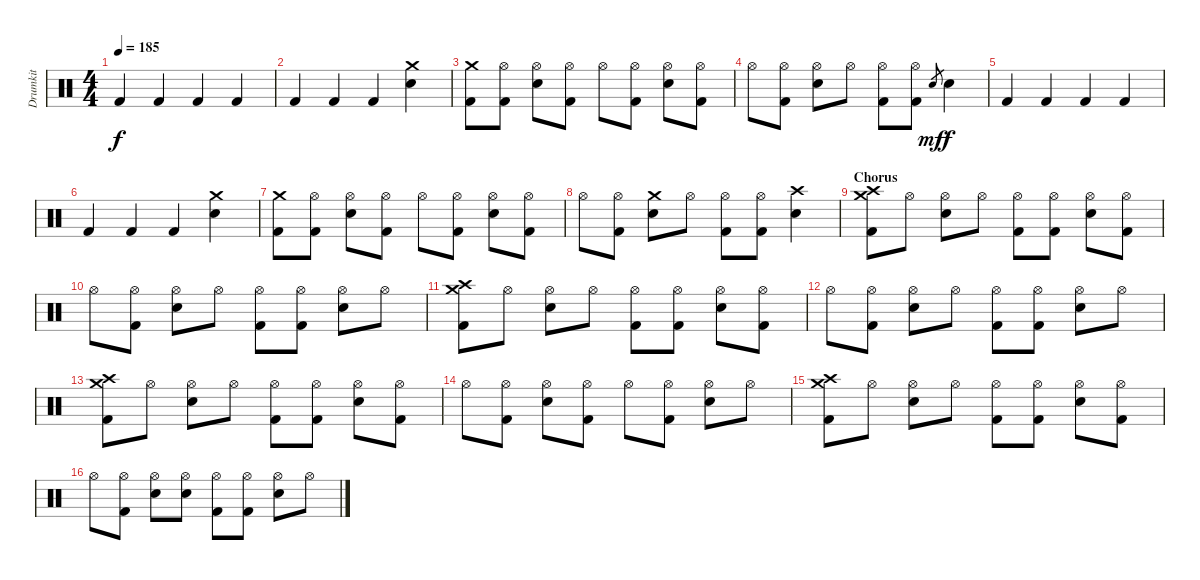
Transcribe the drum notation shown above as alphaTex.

\track ("Drumkit" "Drumkit") {instrument percussion}
\staff {score}
\articulation defaults
\ts (4 4)
\tempo 185
\clef neutral
\ks c "Kick (hit) 2".4{dy f} "Kick (hit) 2".4 "Kick (hit) 2".4 "Kick (hit) 2".4
|
"Kick (hit) 2".4 "Kick (hit) 2".4 "Kick (hit) 2".4 ("Snare (hit) 2" "Crash medium (hit)").4 |
("Crash medium (hit)" "Kick (hit) 2").8 ("Hi-Hat (open)" "Kick (hit) 2").8 ("Hi-Hat (open)" "Snare (hit) 2").8 ("Hi-Hat (open)" "Kick (hit) 2").8 "Hi-Hat (open)".8 ("Hi-Hat (open)" "Kick (hit) 2").8 ("Hi-Hat (open)" "Snare (hit) 2").8 ("Hi-Hat (open)" "Kick (hit) 2").8 |
"Hi-Hat (open)".8 ("Hi-Hat (open)" "Kick (hit) 2").8 ("Hi-Hat (open)" "Snare (hit) 2").8 "Hi-Hat (open)".8 ("Hi-Hat (open)" "Kick (hit) 2").8 ("Hi-Hat (open)" "Kick (hit) 2").8 "Snare (hit)".8{gr dy mf} "Snare (hit) 2".4{dy f} |
"Kick (hit) 2".4 "Kick (hit) 2".4 "Kick (hit) 2".4 "Kick (hit) 2".4 |
"Kick (hit) 2".4 "Kick (hit) 2".4 "Kick (hit) 2".4 ("Snare (hit) 2" "Crash medium (hit)").4 |
("Crash medium (hit)" "Kick (hit) 2").8 ("Hi-Hat (open)" "Kick (hit) 2").8 ("Hi-Hat (open)" "Snare (hit) 2").8 ("Hi-Hat (open)" "Kick (hit) 2").8 "Hi-Hat (open)".8 ("Hi-Hat (open)" "Kick (hit) 2").8 ("Hi-Hat (open)" "Snare (hit) 2").8 ("Hi-Hat (open)" "Kick (hit) 2").8 |
"Hi-Hat (open)".8 ("Hi-Hat (open)" "Kick (hit) 2").8 ("Crash medium (hit)" "Snare (hit) 2").8 "Hi-Hat (open)".8 ("Hi-Hat (open)" "Kick (hit) 2").8 ("Hi-Hat (open)" "Kick (hit) 2").8 ("Crash high (hit)" "Snare (hit) 2").4 |
\section ("" "Chorus")
("Crash high (hit)" "Kick (hit) 2" "Crash medium (hit)").8 "Hi-Hat (open)".8 ("Hi-Hat (open)" "Snare (hit) 2").8 "Hi-Hat (open)".8 ("Hi-Hat (open)" "Kick (hit) 2").8 ("Hi-Hat (open)" "Kick (hit) 2").8 ("Hi-Hat (open)" "Snare (hit) 2").8 ("Hi-Hat (open)" "Kick (hit) 2").8 |
"Hi-Hat (open)".8 ("Hi-Hat (open)" "Kick (hit) 2").8 ("Hi-Hat (open)" "Snare (hit) 2").8 "Hi-Hat (open)".8 ("Hi-Hat (open)" "Kick (hit) 2").8 ("Hi-Hat (open)" "Kick (hit) 2").8 ("Hi-Hat (open)" "Snare (hit) 2").8 "Hi-Hat (open)".8 |
("Crash high (hit)" "Kick (hit) 2" "Crash medium (hit)").8 "Hi-Hat (open)".8 ("Hi-Hat (open)" "Snare (hit) 2").8 "Hi-Hat (open)".8 ("Hi-Hat (open)" "Kick (hit) 2").8 ("Hi-Hat (open)" "Kick (hit) 2").8 ("Hi-Hat (open)" "Snare (hit) 2").8 ("Hi-Hat (open)" "Kick (hit) 2").8 |
"Hi-Hat (open)".8 ("Hi-Hat (open)" "Kick (hit) 2").8 ("Hi-Hat (open)" "Snare (hit) 2").8 "Hi-Hat (open)".8 ("Hi-Hat (open)" "Kick (hit) 2").8 ("Hi-Hat (open)" "Kick (hit) 2").8 ("Hi-Hat (open)" "Snare (hit) 2").8 "Hi-Hat (open)".8 |
("Crash high (hit)" "Kick (hit) 2" "Crash medium (hit)").8 "Hi-Hat (open)".8 ("Hi-Hat (open)" "Snare (hit) 2").8 "Hi-Hat (open)".8 ("Hi-Hat (open)" "Kick (hit) 2").8 ("Hi-Hat (open)" "Kick (hit) 2").8 ("Hi-Hat (open)" "Snare (hit) 2").8 ("Hi-Hat (open)" "Kick (hit) 2").8 |
"Hi-Hat (open)".8 ("Hi-Hat (open)" "Kick (hit) 2").8 ("Hi-Hat (open)" "Snare (hit) 2").8 ("Hi-Hat (open)" "Kick (hit) 2").8 "Hi-Hat (open)".8 ("Hi-Hat (open)" "Kick (hit) 2").8 ("Hi-Hat (open)" "Snare (hit) 2").8 "Hi-Hat (open)".8 |
("Crash high (hit)" "Kick (hit) 2" "Crash medium (hit)").8 "Hi-Hat (open)".8 ("Hi-Hat (open)" "Snare (hit) 2").8 "Hi-Hat (open)".8 ("Hi-Hat (open)" "Kick (hit) 2").8 ("Hi-Hat (open)" "Kick (hit) 2").8 ("Hi-Hat (open)" "Snare (hit) 2").8 ("Hi-Hat (open)" "Kick (hit) 2").8 |
"Hi-Hat (open)".8 ("Hi-Hat (open)" "Kick (hit) 2").8 ("Hi-Hat (open)" "Snare (hit) 2").8 ("Hi-Hat (open)" "Snare (hit) 2").8 ("Hi-Hat (open)" "Kick (hit) 2").8 ("Hi-Hat (open)" "Kick (hit) 2").8 ("Hi-Hat (open)" "Snare (hit) 2").8 "Hi-Hat (open)".8
